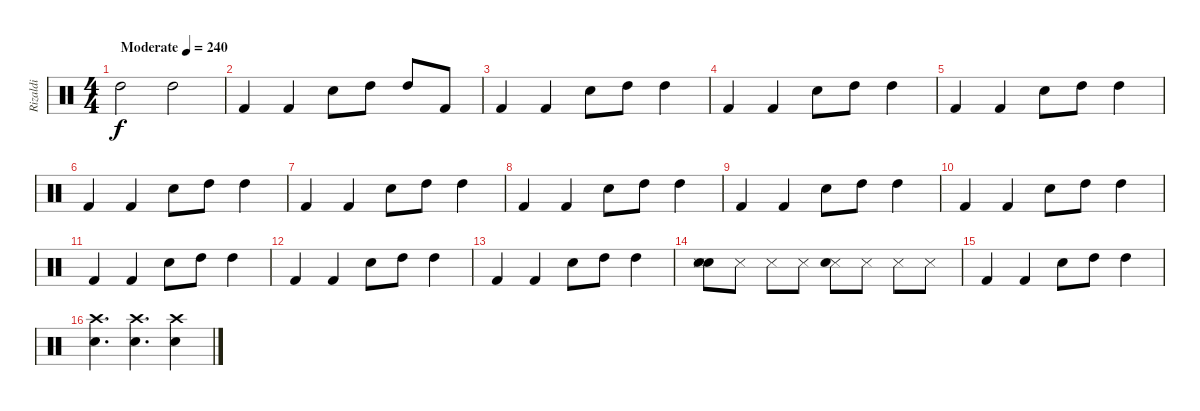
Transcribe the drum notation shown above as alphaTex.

\track ("Rizaldi" "Rizaldi") {instrument percussion}
\staff {score}
\articulation defaults
\ts (4 4)
\tempo (240 "Moderate")
\clef neutral
\ks c "High Tom (hit)".2{dy f} "High Tom (hit)".2
|
"Kick (hit) 2".4 "Kick (hit) 2".4 "Snare (hit) 2".8 "High Tom (hit)".8 "High Tom (hit)".8 "Kick (hit) 2".8 |
"Kick (hit) 2".4 "Kick (hit) 2".4 "Snare (hit) 2".8 "High Tom (hit)".8 "High Tom (hit)".4 |
"Kick (hit) 2".4 "Kick (hit) 2".4 "Snare (hit) 2".8 "High Tom (hit)".8 "High Tom (hit)".4 |
"Kick (hit) 2".4 "Kick (hit) 2".4 "Snare (hit) 2".8 "High Tom (hit)".8 "High Tom (hit)".4 |
"Kick (hit) 2".4 "Kick (hit) 2".4 "Snare (hit) 2".8 "High Tom (hit)".8 "High Tom (hit)".4 |
"Kick (hit) 2".4 "Kick (hit) 2".4 "Snare (hit) 2".8 "High Tom (hit)".8 "High Tom (hit)".4 |
"Kick (hit) 2".4 "Kick (hit) 2".4 "Snare (hit) 2".8 "High Tom (hit)".8 "High Tom (hit)".4 |
"Kick (hit) 2".4 "Kick (hit) 2".4 "Snare (hit) 2".8 "High Tom (hit)".8 "High Tom (hit)".4 |
"Kick (hit) 2".4 "Kick (hit) 2".4 "Snare (hit) 2".8 "High Tom (hit)".8 "High Tom (hit)".4 |
"Kick (hit) 2".4 "Kick (hit) 2".4 "Snare (hit) 2".8 "High Tom (hit)".8 "High Tom (hit)".4 |
"Kick (hit) 2".4 "Kick (hit) 2".4 "Snare (hit) 2".8 "High Tom (hit)".8 "High Tom (hit)".4 |
"Kick (hit) 2".4 "Kick (hit) 2".4 "Snare (hit) 2".8 "High Tom (hit)".8 "High Tom (hit)".4 |
("Snare (hit) 2" "Snare (hit) 2" "Snare (side stick) 3").8 "Snare (side stick) 3".8 "Snare (side stick) 3".8 "Snare (side stick) 3".8 ("Snare (side stick) 3" "Snare (hit) 2").8 "Snare (side stick) 3".8 "Snare (side stick) 3".8 "Snare (side stick) 3".8 |
"Kick (hit) 2".4 "Kick (hit) 2".4 "Snare (hit) 2".8 "High Tom (hit)".8 "High Tom (hit)".4 |
("Snare (hit) 2" "Crash high (hit)").4{d} ("Snare (hit) 2" "Crash high (hit)").4{d} ("Snare (hit) 2" "Crash high (hit)").4
